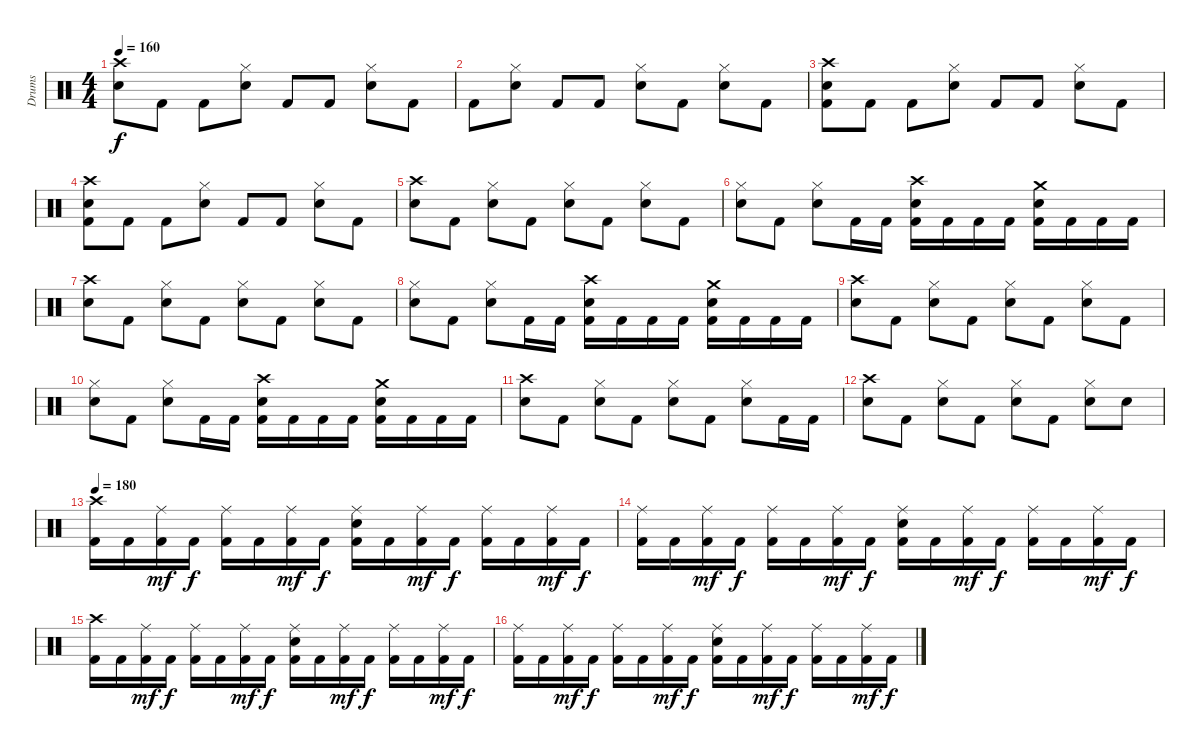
\track ("Drums" "Drums") {instrument percussion}
\staff {score}
\articulation defaults
\ts (4 4)
\tempo 160
\clef neutral
\ks c
("Crash high (hit)" "Electric Snare (hit)").8{dy f} "Kick (hit) 2".8 "Kick (hit) 2".8 ("Hi-Hat (closed)" "Electric Snare (hit)").8 "Kick (hit) 2".8 "Kick (hit) 2".8 ("Hi-Hat (closed)" "Electric Snare (hit)").8 "Kick (hit) 2".8 |
"Kick (hit) 2".8 ("Hi-Hat (closed)" "Electric Snare (hit)").8 "Kick (hit) 2".8 "Kick (hit) 2".8 ("Hi-Hat (closed)" "Electric Snare (hit)").8 "Kick (hit) 2".8 ("Hi-Hat (closed)" "Electric Snare (hit)").8 "Kick (hit) 2".8 |
("Kick (hit) 2" "Crash high (hit)" "Electric Snare (hit)").8 "Kick (hit) 2".8 "Kick (hit) 2".8 ("Hi-Hat (closed)" "Electric Snare (hit)").8 "Kick (hit) 2".8 "Kick (hit) 2".8 ("Hi-Hat (closed)" "Electric Snare (hit)").8 "Kick (hit) 2".8 |
("Kick (hit) 2" "Crash high (hit)" "Electric Snare (hit)").8 "Kick (hit) 2".8 "Kick (hit) 2".8 ("Hi-Hat (closed)" "Electric Snare (hit)").8 "Kick (hit) 2".8 "Kick (hit) 2".8 ("Hi-Hat (closed)" "Electric Snare (hit)").8 "Kick (hit) 2".8 |
("Crash high (hit)" "Electric Snare (hit)").8 "Kick (hit) 2".8 ("Hi-Hat (closed)" "Electric Snare (hit)").8 "Kick (hit) 2".8 ("Hi-Hat (closed)" "Electric Snare (hit)").8 "Kick (hit) 2".8 ("Hi-Hat (closed)" "Electric Snare (hit)").8 "Kick (hit) 2".8 |
("Hi-Hat (closed)" "Electric Snare (hit)").8 "Kick (hit) 2".8 ("Hi-Hat (closed)" "Electric Snare (hit)").8 "Kick (hit) 2".16 "Kick (hit) 2".16 ("Kick (hit) 2" "Crash high (hit)" "Electric Snare (hit)").16 "Kick (hit) 2".16 "Kick (hit) 2".16 "Kick (hit) 2".16 ("Kick (hit) 2" "Crash medium (hit)" "Electric Snare (hit)").16 "Kick (hit) 2".16 "Kick (hit) 2".16 "Kick (hit) 2".16 |
("Crash high (hit)" "Electric Snare (hit)").8 "Kick (hit) 2".8 ("Hi-Hat (closed)" "Electric Snare (hit)").8 "Kick (hit) 2".8 ("Hi-Hat (closed)" "Electric Snare (hit)").8 "Kick (hit) 2".8 ("Hi-Hat (closed)" "Electric Snare (hit)").8 "Kick (hit) 2".8 |
("Hi-Hat (closed)" "Electric Snare (hit)").8 "Kick (hit) 2".8 ("Hi-Hat (closed)" "Electric Snare (hit)").8 "Kick (hit) 2".16 "Kick (hit) 2".16 ("Kick (hit) 2" "Crash high (hit)" "Electric Snare (hit)").16 "Kick (hit) 2".16 "Kick (hit) 2".16 "Kick (hit) 2".16 ("Kick (hit) 2" "Crash medium (hit)" "Electric Snare (hit)").16 "Kick (hit) 2".16 "Kick (hit) 2".16 "Kick (hit) 2".16 |
("Crash high (hit)" "Electric Snare (hit)").8 "Kick (hit) 2".8 ("Hi-Hat (closed)" "Electric Snare (hit)").8 "Kick (hit) 2".8 ("Hi-Hat (closed)" "Electric Snare (hit)").8 "Kick (hit) 2".8 ("Hi-Hat (closed)" "Electric Snare (hit)").8 "Kick (hit) 2".8 |
("Hi-Hat (closed)" "Electric Snare (hit)").8 "Kick (hit) 2".8 ("Hi-Hat (closed)" "Electric Snare (hit)").8 "Kick (hit) 2".16 "Kick (hit) 2".16 ("Kick (hit) 2" "Crash high (hit)" "Electric Snare (hit)").16 "Kick (hit) 2".16 "Kick (hit) 2".16 "Kick (hit) 2".16 ("Kick (hit) 2" "Crash medium (hit)" "Electric Snare (hit)").16 "Kick (hit) 2".16 "Kick (hit) 2".16 "Kick (hit) 2".16 |
("Crash high (hit)" "Electric Snare (hit)").8 "Kick (hit) 2".8 ("Hi-Hat (closed)" "Electric Snare (hit)").8 "Kick (hit) 2".8 ("Hi-Hat (closed)" "Electric Snare (hit)").8 "Kick (hit) 2".8 ("Hi-Hat (closed)" "Electric Snare (hit)").8 "Kick (hit) 2".16 "Kick (hit) 2".16 |
("Crash high (hit)" "Electric Snare (hit)").8 "Kick (hit) 2".8 ("Hi-Hat (closed)" "Electric Snare (hit)").8 "Kick (hit) 2".8 ("Hi-Hat (closed)" "Electric Snare (hit)").8 "Kick (hit) 2".8 ("Hi-Hat (closed)" "Electric Snare (hit)").8 "Electric Snare (hit)".8 |
\tempo 180
("Kick (hit) 2" "Crash high (hit)").16 "Kick (hit) 2".16 ("Kick (hit) 2" "Ride (middle)").16{dy mf} "Kick (hit) 2".16{dy f} ("Kick (hit) 2" "Ride (middle)").16 "Kick (hit) 2".16 ("Kick (hit) 2" "Ride (middle)").16{dy mf} "Kick (hit) 2".16{dy f} ("Kick (hit) 2" "Ride (middle)" "Electric Snare (hit)").16 "Kick (hit) 2".16 ("Kick (hit) 2" "Ride (middle)").16{dy mf} "Kick (hit) 2".16{dy f} ("Kick (hit) 2" "Ride (middle)").16 "Kick (hit) 2".16 ("Kick (hit) 2" "Ride (middle)").16{dy mf} "Kick (hit) 2".16{dy f} |
("Kick (hit) 2" "Ride (middle)").16 "Kick (hit) 2".16 ("Kick (hit) 2" "Ride (middle)").16{dy mf} "Kick (hit) 2".16{dy f} ("Kick (hit) 2" "Ride (middle)").16 "Kick (hit) 2".16 ("Kick (hit) 2" "Ride (middle)").16{dy mf} "Kick (hit) 2".16{dy f} ("Kick (hit) 2" "Ride (middle)" "Electric Snare (hit)").16 "Kick (hit) 2".16 ("Kick (hit) 2" "Ride (middle)").16{dy mf} "Kick (hit) 2".16{dy f} ("Kick (hit) 2" "Ride (middle)").16 "Kick (hit) 2".16 ("Kick (hit) 2" "Ride (middle)").16{dy mf} "Kick (hit) 2".16{dy f} |
("Kick (hit) 2" "Crash high (hit)").16 "Kick (hit) 2".16 ("Kick (hit) 2" "Ride (middle)").16{dy mf} "Kick (hit) 2".16{dy f} ("Kick (hit) 2" "Ride (middle)").16 "Kick (hit) 2".16 ("Kick (hit) 2" "Ride (middle)").16{dy mf} "Kick (hit) 2".16{dy f} ("Kick (hit) 2" "Ride (middle)" "Electric Snare (hit)").16 "Kick (hit) 2".16 ("Kick (hit) 2" "Ride (middle)").16{dy mf} "Kick (hit) 2".16{dy f} ("Kick (hit) 2" "Ride (middle)").16 "Kick (hit) 2".16 ("Kick (hit) 2" "Ride (middle)").16{dy mf} "Kick (hit) 2".16{dy f} |
("Kick (hit) 2" "Ride (middle)").16 "Kick (hit) 2".16 ("Kick (hit) 2" "Ride (middle)").16{dy mf} "Kick (hit) 2".16{dy f} ("Kick (hit) 2" "Ride (middle)").16 "Kick (hit) 2".16 ("Kick (hit) 2" "Ride (middle)").16{dy mf} "Kick (hit) 2".16{dy f} ("Kick (hit) 2" "Ride (middle)" "Electric Snare (hit)").16 "Kick (hit) 2".16 ("Kick (hit) 2" "Ride (middle)").16{dy mf} "Kick (hit) 2".16{dy f} ("Kick (hit) 2" "Ride (middle)").16 "Kick (hit) 2".16 ("Kick (hit) 2" "Ride (middle)").16{dy mf} "Kick (hit) 2".16{dy f}
